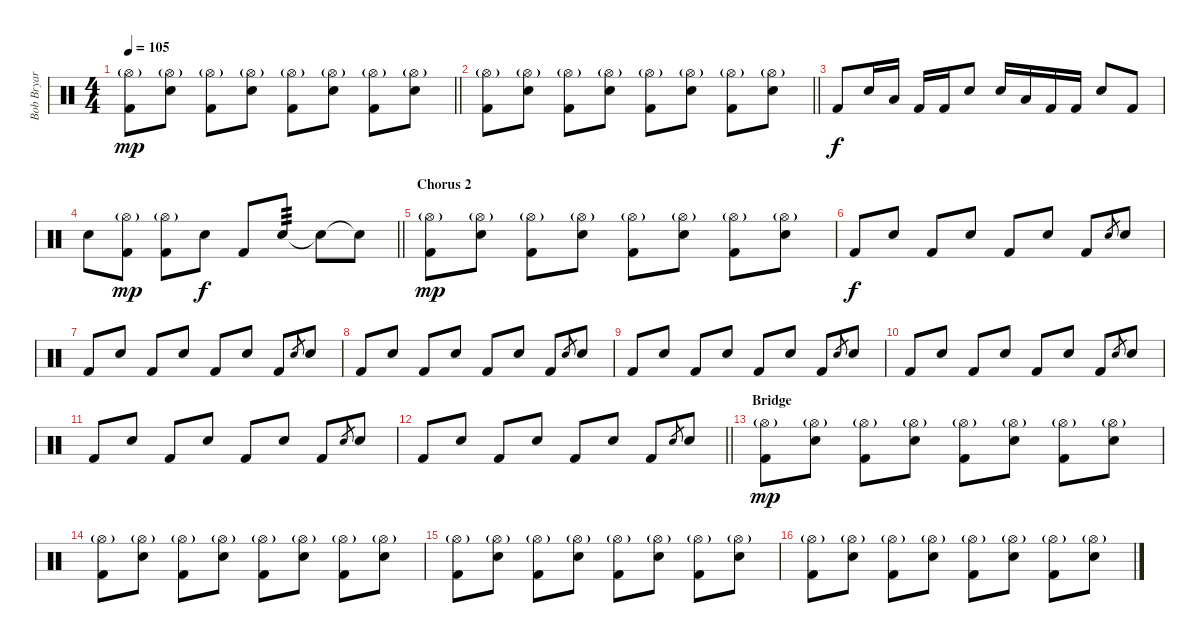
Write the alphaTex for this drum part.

\track ("Bob Bryar" "Bob Bryar") {instrument percussion}
\staff {score}
\articulation defaults
\ts (4 4)
\tempo 105
\clef neutral
\barLineRight lightlight
\ks c
("Hi-Hat (open)"{g} "Kick (hit) 2").8{dy mp} ("Hi-Hat (open)"{g} "Electric Snare (hit)").8 ("Hi-Hat (open)"{g} "Kick (hit) 2").8 ("Hi-Hat (open)"{g} "Electric Snare (hit)").8 ("Hi-Hat (open)"{g} "Kick (hit) 2").8 ("Hi-Hat (open)"{g} "Electric Snare (hit)").8 ("Hi-Hat (open)"{g} "Kick (hit) 2").8 ("Hi-Hat (open)"{g} "Electric Snare (hit)").8 |
\barLineRight lightlight
("Hi-Hat (open)"{g} "Kick (hit) 2").8 ("Hi-Hat (open)"{g} "Electric Snare (hit)").8 ("Hi-Hat (open)"{g} "Kick (hit) 2").8 ("Hi-Hat (open)"{g} "Electric Snare (hit)").8 ("Hi-Hat (open)"{g} "Kick (hit) 2").8 ("Hi-Hat (open)"{g} "Electric Snare (hit)").8 ("Hi-Hat (open)"{g} "Kick (hit) 2").8 ("Hi-Hat (open)"{g} "Electric Snare (hit)").8 |
"Kick (hit) 2".8{dy f} "Electric Snare (hit)".16 "Low Tom (hit)".16 "Kick (hit) 2".16 "Kick (hit) 2".16 "Electric Snare (hit)".8 "Electric Snare (hit)".16 "Low Tom (hit)".16 "Kick (hit) 2".16 "Kick (hit) 2".16 "Electric Snare (hit)".8 "Kick (hit) 2".8 |
\barLineRight lightlight "Electric Snare (hit)".8
("Hi-Hat (open)"{g} "Kick (hit) 2").8{dy mp} ("Hi-Hat (open)"{g} "Kick (hit) 2").8 "Electric Snare (hit)".8{dy f} "Kick (hit) 2".8 "Electric Snare (hit)".8{tp 3} "Snare (hit)"{t}.8 "Snare (hit)"{t}.8 |
\section ("" "Chorus 2")
("Hi-Hat (open)"{g} "Kick (hit) 2").8{dy mp} ("Hi-Hat (open)"{g} "Electric Snare (hit)").8 ("Hi-Hat (open)"{g} "Kick (hit) 2").8 ("Hi-Hat (open)"{g} "Electric Snare (hit)").8 ("Hi-Hat (open)"{g} "Kick (hit) 2").8 ("Hi-Hat (open)"{g} "Electric Snare (hit)").8 ("Hi-Hat (open)"{g} "Kick (hit) 2").8 ("Hi-Hat (open)"{g} "Electric Snare (hit)").8 |
"Kick (hit) 2".8{dy f} "Electric Snare (hit)".8 "Kick (hit) 2".8 "Electric Snare (hit)".8 "Kick (hit) 2".8 "Electric Snare (hit)".8 "Kick (hit) 2".8 "Electric Snare (hit)".8{gr} "Electric Snare (hit)".8 |
"Kick (hit) 2".8 "Electric Snare (hit)".8 "Kick (hit) 2".8 "Electric Snare (hit)".8 "Kick (hit) 2".8 "Electric Snare (hit)".8 "Kick (hit) 2".8 "Electric Snare (hit)".8{gr} "Electric Snare (hit)".8 |
"Kick (hit) 2".8 "Electric Snare (hit)".8 "Kick (hit) 2".8 "Electric Snare (hit)".8 "Kick (hit) 2".8 "Electric Snare (hit)".8 "Kick (hit) 2".8 "Electric Snare (hit)".8{gr} "Electric Snare (hit)".8 |
"Kick (hit) 2".8 "Electric Snare (hit)".8 "Kick (hit) 2".8 "Electric Snare (hit)".8 "Kick (hit) 2".8 "Electric Snare (hit)".8 "Kick (hit) 2".8 "Electric Snare (hit)".8{gr} "Electric Snare (hit)".8 |
"Kick (hit) 2".8 "Electric Snare (hit)".8 "Kick (hit) 2".8 "Electric Snare (hit)".8 "Kick (hit) 2".8 "Electric Snare (hit)".8 "Kick (hit) 2".8 "Electric Snare (hit)".8{gr} "Electric Snare (hit)".8 |
"Kick (hit) 2".8 "Electric Snare (hit)".8 "Kick (hit) 2".8 "Electric Snare (hit)".8 "Kick (hit) 2".8 "Electric Snare (hit)".8 "Kick (hit) 2".8 "Electric Snare (hit)".8{gr} "Electric Snare (hit)".8 |
\barLineRight lightlight "Kick (hit) 2".8 "Electric Snare (hit)".8 "Kick (hit) 2".8 "Electric Snare (hit)".8 "Kick (hit) 2".8 "Electric Snare (hit)".8 "Kick (hit) 2".8 "Electric Snare (hit)".8{gr} "Electric Snare (hit)".8
|
\section ("" "Bridge")
("Hi-Hat (open)"{g} "Kick (hit) 2").8{dy mp} ("Hi-Hat (open)"{g} "Electric Snare (hit)").8 ("Hi-Hat (open)"{g} "Kick (hit) 2").8 ("Hi-Hat (open)"{g} "Electric Snare (hit)").8 ("Hi-Hat (open)"{g} "Kick (hit) 2").8 ("Hi-Hat (open)"{g} "Electric Snare (hit)").8 ("Hi-Hat (open)"{g} "Kick (hit) 2").8 ("Hi-Hat (open)"{g} "Electric Snare (hit)").8 |
("Hi-Hat (open)"{g} "Kick (hit) 2").8 ("Hi-Hat (open)"{g} "Electric Snare (hit)").8 ("Hi-Hat (open)"{g} "Kick (hit) 2").8 ("Hi-Hat (open)"{g} "Electric Snare (hit)").8 ("Hi-Hat (open)"{g} "Kick (hit) 2").8 ("Hi-Hat (open)"{g} "Electric Snare (hit)").8 ("Hi-Hat (open)"{g} "Kick (hit) 2").8 ("Hi-Hat (open)"{g} "Electric Snare (hit)").8 |
("Hi-Hat (open)"{g} "Kick (hit) 2").8 ("Hi-Hat (open)"{g} "Electric Snare (hit)").8 ("Hi-Hat (open)"{g} "Kick (hit) 2").8 ("Hi-Hat (open)"{g} "Electric Snare (hit)").8 ("Hi-Hat (open)"{g} "Kick (hit) 2").8 ("Hi-Hat (open)"{g} "Electric Snare (hit)").8 ("Hi-Hat (open)"{g} "Kick (hit) 2").8 ("Hi-Hat (open)"{g} "Electric Snare (hit)").8 |
("Hi-Hat (open)"{g} "Kick (hit) 2").8 ("Hi-Hat (open)"{g} "Electric Snare (hit)").8 ("Hi-Hat (open)"{g} "Kick (hit) 2").8 ("Hi-Hat (open)"{g} "Electric Snare (hit)").8 ("Hi-Hat (open)"{g} "Kick (hit) 2").8 ("Hi-Hat (open)"{g} "Electric Snare (hit)").8 ("Hi-Hat (open)"{g} "Kick (hit) 2").8 ("Hi-Hat (open)"{g} "Electric Snare (hit)").8
